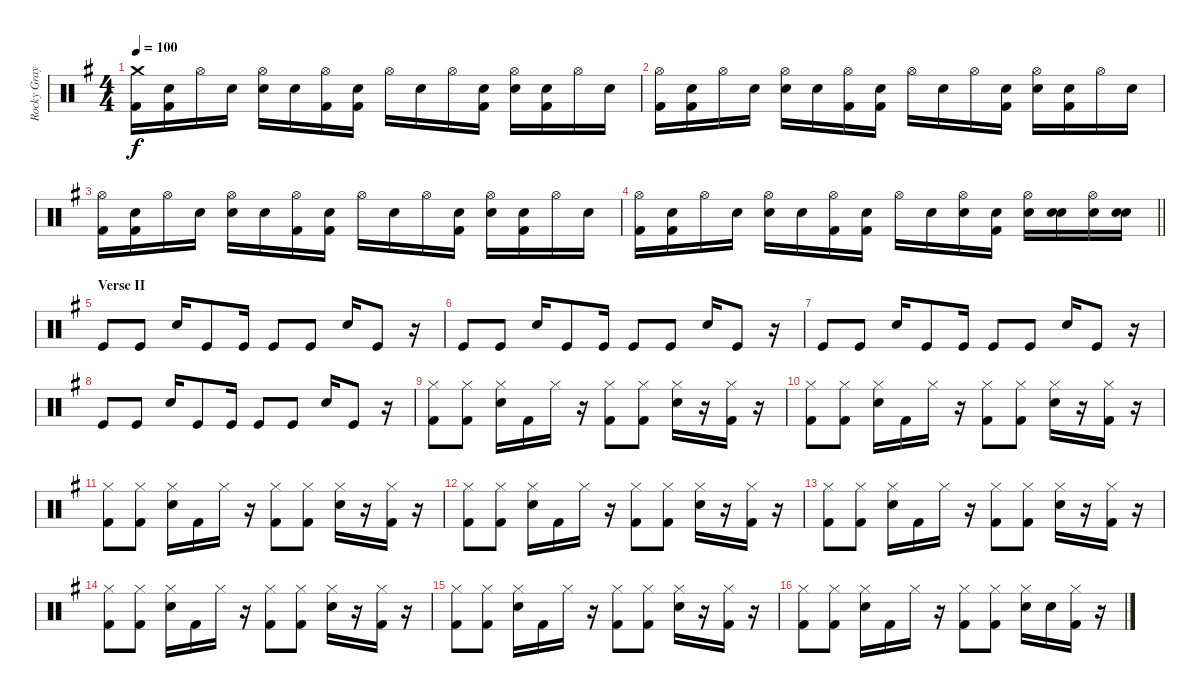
\track ("Rocky Gray" "Rocky Gray") {instrument percussion}
\staff {score}
\articulation defaults
\ts (4 4)
\tempo 100
\clef neutral
\ks g
("Crash medium (hit)" "Kick (hit) 2").16{dy f} ("Snare (hit)" "Kick (hit) 2").16 "Hi-Hat (open)".16 "Snare (hit)".16 ("Hi-Hat (open)" "Snare (hit) 2").16 "Snare (hit)".16 ("Hi-Hat (open)" "Kick (hit) 2").16 ("Snare (hit)" "Kick (hit) 2").16 "Hi-Hat (open)".16 "Snare (hit)".16 "Hi-Hat (open)".16 ("Snare (hit)" "Kick (hit) 2").16 ("Hi-Hat (open)" "Snare (hit) 2").16 ("Snare (hit)" "Kick (hit) 2").16 "Hi-Hat (open)".16 "Snare (hit)".16 |
("Hi-Hat (open)" "Kick (hit) 2").16 ("Snare (hit)" "Kick (hit) 2").16 "Hi-Hat (open)".16 "Snare (hit)".16 ("Hi-Hat (open)" "Snare (hit) 2").16 "Snare (hit)".16 ("Hi-Hat (open)" "Kick (hit) 2").16 ("Snare (hit)" "Kick (hit) 2").16 "Hi-Hat (open)".16 "Snare (hit)".16 "Hi-Hat (open)".16 ("Snare (hit)" "Kick (hit) 2").16 ("Hi-Hat (open)" "Snare (hit) 2").16 ("Snare (hit)" "Kick (hit) 2").16 "Hi-Hat (open)".16 "Snare (hit)".16 |
("Hi-Hat (open)" "Kick (hit) 2").16 ("Snare (hit)" "Kick (hit) 2").16 "Hi-Hat (open)".16 "Snare (hit)".16 ("Hi-Hat (open)" "Snare (hit) 2").16 "Snare (hit)".16 ("Hi-Hat (open)" "Kick (hit) 2").16 ("Snare (hit)" "Kick (hit) 2").16 "Hi-Hat (open)".16 "Snare (hit)".16 "Hi-Hat (open)".16 ("Snare (hit)" "Kick (hit) 2").16 ("Hi-Hat (open)" "Snare (hit) 2").16 ("Snare (hit)" "Kick (hit) 2").16 "Hi-Hat (open)".16 "Snare (hit)".16 |
\barLineRight lightlight
("Hi-Hat (open)" "Kick (hit) 2").16 ("Snare (hit)" "Kick (hit) 2").16 "Hi-Hat (open)".16 "Snare (hit)".16 ("Hi-Hat (open)" "Snare (hit) 2").16 "Snare (hit)".16 ("Hi-Hat (open)" "Kick (hit) 2").16 ("Snare (hit)" "Kick (hit) 2").16 "Hi-Hat (open)".16 "Snare (hit)".16 ("Hi-Hat (open)" "Snare (hit) 2").16 ("Snare (hit)" "Kick (hit) 2").16 ("Hi-Hat (open)" "Snare (hit) 2").16 ("Snare (hit)" "Snare (hit) 2").16 ("Hi-Hat (open)" "Snare (hit) 2").16 ("Snare (hit)" "Snare (hit) 2").16 |
\section ("" "Verse II")
"Kick (hit)".8 "Kick (hit)".8 "Snare (hit) 2".16 "Kick (hit)".8 "Kick (hit)".16 "Kick (hit)".8 "Kick (hit)".8 "Snare (hit) 2".16 "Kick (hit)".8 r.16 |
"Kick (hit)".8 "Kick (hit)".8 "Snare (hit) 2".16 "Kick (hit)".8 "Kick (hit)".16 "Kick (hit)".8 "Kick (hit)".8 "Snare (hit) 2".16 "Kick (hit)".8 r.16 |
"Kick (hit)".8 "Kick (hit)".8 "Snare (hit) 2".16 "Kick (hit)".8 "Kick (hit)".16 "Kick (hit)".8 "Kick (hit)".8 "Snare (hit) 2".16 "Kick (hit)".8 r.16 |
"Kick (hit)".8 "Kick (hit)".8 "Snare (hit) 2".16 "Kick (hit)".8 "Kick (hit)".16 "Kick (hit)".8 "Kick (hit)".8 "Snare (hit) 2".16 "Kick (hit)".8 r.16 |
("Hi-Hat (closed)" "Kick (hit) 2").8 ("Hi-Hat (closed)" "Kick (hit) 2").8 ("Hi-Hat (closed)" "Snare (hit) 2").16 "Kick (hit) 2".16 "Hi-Hat (closed)".16 r.16 ("Hi-Hat (closed)" "Kick (hit) 2").8 ("Hi-Hat (closed)" "Kick (hit) 2").8 ("Hi-Hat (closed)" "Snare (hit) 2").16 r.16 ("Hi-Hat (closed)" "Kick (hit) 2").16 r.16 |
("Hi-Hat (closed)" "Kick (hit) 2").8 ("Hi-Hat (closed)" "Kick (hit) 2").8 ("Hi-Hat (closed)" "Snare (hit) 2").16 "Kick (hit) 2".16 "Hi-Hat (closed)".16 r.16 ("Hi-Hat (closed)" "Kick (hit) 2").8 ("Hi-Hat (closed)" "Kick (hit) 2").8 ("Hi-Hat (closed)" "Snare (hit) 2").16 r.16 ("Hi-Hat (closed)" "Kick (hit) 2").16 r.16 |
("Hi-Hat (closed)" "Kick (hit) 2").8 ("Hi-Hat (closed)" "Kick (hit) 2").8 ("Hi-Hat (closed)" "Snare (hit) 2").16 "Kick (hit) 2".16 "Hi-Hat (closed)".16 r.16 ("Hi-Hat (closed)" "Kick (hit) 2").8 ("Hi-Hat (closed)" "Kick (hit) 2").8 ("Hi-Hat (closed)" "Snare (hit) 2").16 r.16 ("Hi-Hat (closed)" "Kick (hit) 2").16 r.16 |
("Hi-Hat (closed)" "Kick (hit) 2").8 ("Hi-Hat (closed)" "Kick (hit) 2").8 ("Hi-Hat (closed)" "Snare (hit) 2").16 "Kick (hit) 2".16 "Hi-Hat (closed)".16 r.16 ("Hi-Hat (closed)" "Kick (hit) 2").8 ("Hi-Hat (closed)" "Kick (hit) 2").8 ("Hi-Hat (closed)" "Snare (hit) 2").16 r.16 ("Hi-Hat (closed)" "Kick (hit) 2").16 r.16 |
("Hi-Hat (closed)" "Kick (hit) 2").8 ("Hi-Hat (closed)" "Kick (hit) 2").8 ("Hi-Hat (closed)" "Snare (hit) 2").16 "Kick (hit) 2".16 "Hi-Hat (closed)".16 r.16 ("Hi-Hat (closed)" "Kick (hit) 2").8 ("Hi-Hat (closed)" "Kick (hit) 2").8 ("Hi-Hat (closed)" "Snare (hit) 2").16 r.16 ("Hi-Hat (closed)" "Kick (hit) 2").16 r.16 |
("Hi-Hat (closed)" "Kick (hit) 2").8 ("Hi-Hat (closed)" "Kick (hit) 2").8 ("Hi-Hat (closed)" "Snare (hit) 2").16 "Kick (hit) 2".16 "Hi-Hat (closed)".16 r.16 ("Hi-Hat (closed)" "Kick (hit) 2").8 ("Hi-Hat (closed)" "Kick (hit) 2").8 ("Hi-Hat (closed)" "Snare (hit) 2").16 r.16 ("Hi-Hat (closed)" "Kick (hit) 2").16 r.16 |
("Hi-Hat (closed)" "Kick (hit) 2").8 ("Hi-Hat (closed)" "Kick (hit) 2").8 ("Hi-Hat (closed)" "Snare (hit) 2").16 "Kick (hit) 2".16 "Hi-Hat (closed)".16 r.16 ("Hi-Hat (closed)" "Kick (hit) 2").8 ("Hi-Hat (closed)" "Kick (hit) 2").8 ("Hi-Hat (closed)" "Snare (hit) 2").16 r.16 ("Hi-Hat (closed)" "Kick (hit) 2").16 r.16 |
("Hi-Hat (closed)" "Kick (hit) 2").8 ("Hi-Hat (closed)" "Kick (hit) 2").8 ("Hi-Hat (closed)" "Snare (hit) 2").16 "Kick (hit) 2".16 "Hi-Hat (closed)".16 r.16 ("Hi-Hat (closed)" "Kick (hit) 2").8 ("Hi-Hat (closed)" "Kick (hit) 2").8 ("Hi-Hat (closed)" "Snare (hit) 2").16 "Snare (hit)".16 ("Hi-Hat (closed)" "Kick (hit) 2").16 r.16
